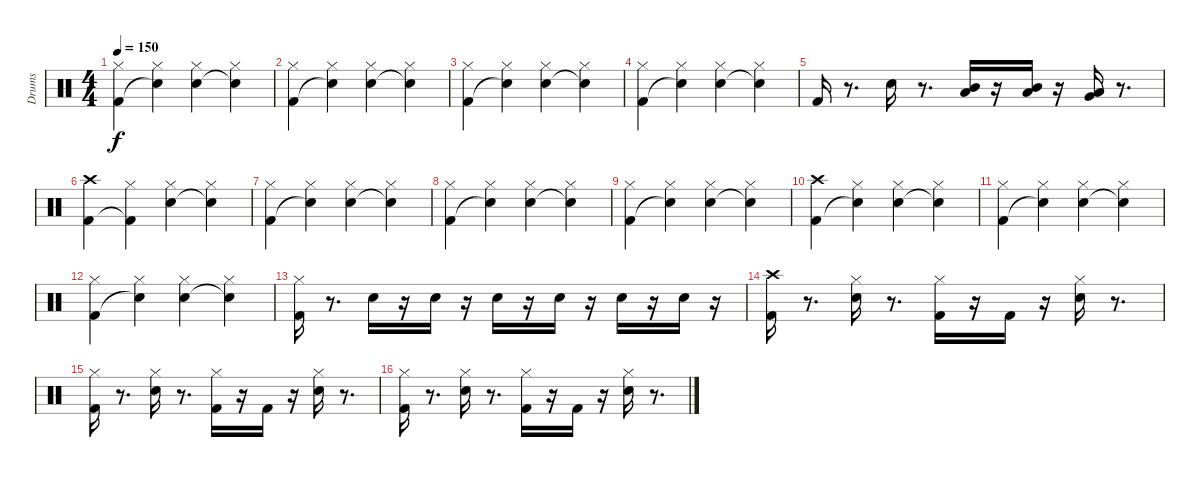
\track ("Drums" "Drums") {instrument percussion}
\staff {score}
\articulation defaults
\ts (4 4)
\tempo 150
\clef neutral
\ks c
("Hi-Hat (closed)" "Kick (hit) 2").4{dy f} ("Hi-Hat (closed)" "Snare (hit)"{t}).4 ("Hi-Hat (closed)" "Electric Snare (hit)").4 ("Hi-Hat (closed)" "Snare (hit)"{t}).4 |
("Hi-Hat (closed)" "Kick (hit) 2").4 ("Hi-Hat (closed)" "Snare (hit)"{t}).4 ("Hi-Hat (closed)" "Electric Snare (hit)").4 ("Hi-Hat (closed)" "Snare (hit)"{t}).4 |
("Hi-Hat (closed)" "Kick (hit) 2").4 ("Hi-Hat (closed)" "Snare (hit)"{t}).4 ("Hi-Hat (closed)" "Electric Snare (hit)").4 ("Hi-Hat (closed)" "Snare (hit)"{t}).4 |
("Hi-Hat (closed)" "Kick (hit) 2").4 ("Hi-Hat (closed)" "Snare (hit)"{t}).4 ("Hi-Hat (closed)" "Electric Snare (hit)").4 ("Hi-Hat (closed)" "Snare (hit)"{t}).4 |
"Kick (hit) 2".16 r.8{d} "Electric Snare (hit)".16 r.8{d} ("Low Tom (hit)" "Mid Tom (hit)").16 r.16 ("Low Tom (hit)" "Mid Tom (hit)").16 r.16 ("Low Tom (hit)" "Very Low Tom (hit)").16 r.8{d} |
("Crash high (hit)" "Kick (hit) 2").4 ("Hi-Hat (closed)" "Kick (hit) 2"{t}).4 ("Hi-Hat (closed)" "Electric Snare (hit)").4 ("Hi-Hat (closed)" "Snare (hit)"{t}).4 |
("Hi-Hat (closed)" "Kick (hit) 2").4 ("Hi-Hat (closed)" "Snare (hit)"{t}).4 ("Hi-Hat (closed)" "Electric Snare (hit)").4 ("Hi-Hat (closed)" "Snare (hit)"{t}).4 |
("Hi-Hat (closed)" "Kick (hit) 2").4 ("Hi-Hat (closed)" "Snare (hit)"{t}).4 ("Hi-Hat (closed)" "Electric Snare (hit)").4 ("Hi-Hat (closed)" "Snare (hit)"{t}).4 |
("Hi-Hat (closed)" "Kick (hit) 2").4 ("Hi-Hat (closed)" "Snare (hit)"{t}).4 ("Hi-Hat (closed)" "Electric Snare (hit)").4 ("Hi-Hat (closed)" "Snare (hit)"{t}).4 |
("Crash high (hit)" "Kick (hit) 2").4 ("Hi-Hat (closed)" "Snare (hit)"{t}).4 ("Hi-Hat (closed)" "Electric Snare (hit)").4 ("Hi-Hat (closed)" "Snare (hit)"{t}).4 |
("Hi-Hat (closed)" "Kick (hit) 2").4 ("Hi-Hat (closed)" "Snare (hit)"{t}).4 ("Hi-Hat (closed)" "Electric Snare (hit)").4 ("Hi-Hat (closed)" "Snare (hit)"{t}).4 |
("Hi-Hat (closed)" "Kick (hit) 2").4 ("Hi-Hat (closed)" "Snare (hit)"{t}).4 ("Hi-Hat (closed)" "Electric Snare (hit)").4 ("Hi-Hat (closed)" "Snare (hit)"{t}).4 |
("Hi-Hat (closed)" "Kick (hit) 2").16 r.8{d} "Electric Snare (hit)".16 r.16 "Electric Snare (hit)".16 r.16 "Electric Snare (hit)".16 r.16 "Electric Snare (hit)".16 r.16 "Electric Snare (hit)".16 r.16 "Electric Snare (hit)".16 r.16 |
("Crash high (hit)" "Kick (hit) 2").16 r.8{d} ("Hi-Hat (closed)" "Electric Snare (hit)").16 r.8{d} ("Hi-Hat (closed)" "Kick (hit) 2").16 r.16 "Kick (hit) 2".16 r.16 ("Hi-Hat (closed)" "Electric Snare (hit)").16 r.8{d} |
("Hi-Hat (closed)" "Kick (hit) 2").16 r.8{d} ("Hi-Hat (closed)" "Electric Snare (hit)").16 r.8{d} ("Hi-Hat (closed)" "Kick (hit) 2").16 r.16 "Kick (hit) 2".16 r.16 ("Hi-Hat (closed)" "Electric Snare (hit)").16 r.8{d} |
("Hi-Hat (closed)" "Kick (hit) 2").16 r.8{d} ("Hi-Hat (closed)" "Electric Snare (hit)").16 r.8{d} ("Hi-Hat (closed)" "Kick (hit) 2").16 r.16 "Kick (hit) 2".16 r.16 ("Hi-Hat (closed)" "Electric Snare (hit)").16 r.8{d}
